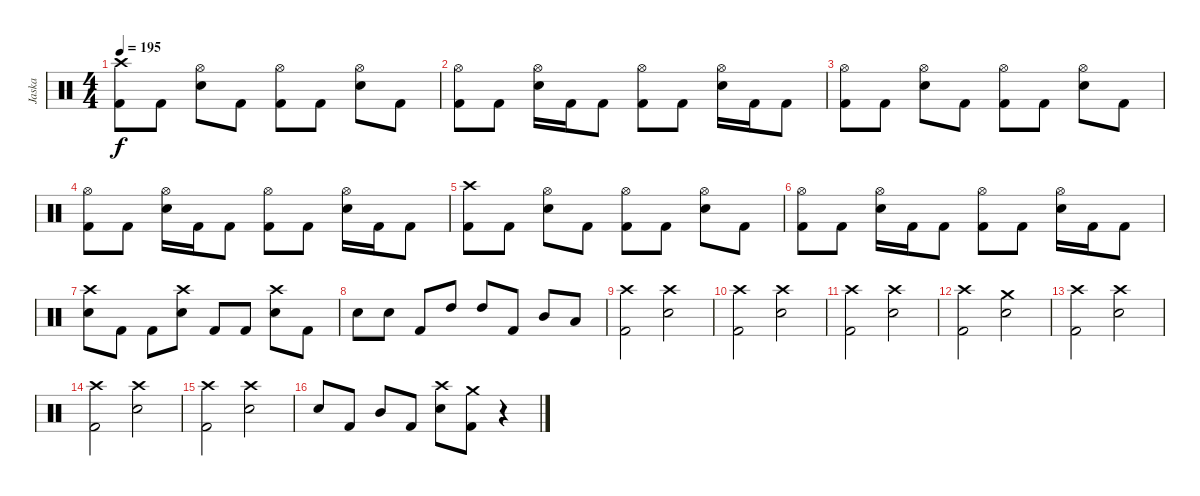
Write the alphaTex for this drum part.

\track ("Jaska" "Jaska") {instrument percussion}
\staff {score}
\articulation defaults
\ts (4 4)
\tempo 195
\clef neutral
\ks c
("Crash high (hit)" "Kick (hit) 2").8{dy f} "Kick (hit) 2".8 ("Hi-Hat (open)" "Electric Snare (hit)").8 "Kick (hit) 2".8 ("Hi-Hat (open)" "Kick (hit) 2").8 "Kick (hit) 2".8 ("Hi-Hat (open)" "Electric Snare (hit)").8 "Kick (hit) 2".8 |
("Hi-Hat (open)" "Kick (hit) 2").8 "Kick (hit) 2".8 ("Hi-Hat (open)" "Electric Snare (hit)").16 "Kick (hit) 2".16 "Kick (hit) 2".8 ("Hi-Hat (open)" "Kick (hit) 2").8 "Kick (hit) 2".8 ("Hi-Hat (open)" "Electric Snare (hit)").16 "Kick (hit) 2".16 "Kick (hit) 2".8 |
("Hi-Hat (open)" "Kick (hit) 2").8 "Kick (hit) 2".8 ("Hi-Hat (open)" "Electric Snare (hit)").8 "Kick (hit) 2".8 ("Hi-Hat (open)" "Kick (hit) 2").8 "Kick (hit) 2".8 ("Hi-Hat (open)" "Electric Snare (hit)").8 "Kick (hit) 2".8 |
("Hi-Hat (open)" "Kick (hit) 2").8 "Kick (hit) 2".8 ("Hi-Hat (open)" "Electric Snare (hit)").16 "Kick (hit) 2".16 "Kick (hit) 2".8 ("Hi-Hat (open)" "Kick (hit) 2").8 "Kick (hit) 2".8 ("Hi-Hat (open)" "Electric Snare (hit)").16 "Kick (hit) 2".16 "Kick (hit) 2".8 |
("Crash high (hit)" "Kick (hit) 2").8 "Kick (hit) 2".8 ("Hi-Hat (open)" "Electric Snare (hit)").8 "Kick (hit) 2".8 ("Hi-Hat (open)" "Kick (hit) 2").8 "Kick (hit) 2".8 ("Hi-Hat (open)" "Electric Snare (hit)").8 "Kick (hit) 2".8 |
("Hi-Hat (open)" "Kick (hit) 2").8 "Kick (hit) 2".8 ("Hi-Hat (open)" "Electric Snare (hit)").16 "Kick (hit) 2".16 "Kick (hit) 2".8 ("Hi-Hat (open)" "Kick (hit) 2").8 "Kick (hit) 2".8 ("Hi-Hat (open)" "Electric Snare (hit)").16 "Kick (hit) 2".16 "Kick (hit) 2".8 |
("Crash high (hit)" "Electric Snare (hit)").8 "Kick (hit) 2".8 "Kick (hit) 2".8 ("Crash high (hit)" "Electric Snare (hit)").8 "Kick (hit) 2".8 "Kick (hit) 2".8 ("Crash high (hit)" "Electric Snare (hit)").8 "Kick (hit) 2".8 |
"Electric Snare (hit)".8 "Electric Snare (hit)".8 "Kick (hit) 2".8 "High Tom (hit)".8 "High Tom (hit)".8 "Kick (hit) 2".8 "Mid Tom (hit)".8 "Low Tom (hit)".8 |
("Crash high (hit)" "Kick (hit) 2").2 ("Crash high (hit)" "Electric Snare (hit)").2 |
("Crash high (hit)" "Kick (hit) 2").2 ("Crash high (hit)" "Electric Snare (hit)").2 |
("Crash high (hit)" "Kick (hit) 2").2 ("Crash high (hit)" "Electric Snare (hit)").2 |
("Crash high (hit)" "Kick (hit) 2").2 ("Crash medium (hit)" "Electric Snare (hit)").2 |
("Crash high (hit)" "Kick (hit) 2").2 ("Crash high (hit)" "Electric Snare (hit)").2 |
("Crash high (hit)" "Kick (hit) 2").2 ("Crash high (hit)" "Electric Snare (hit)").2 |
("Crash high (hit)" "Kick (hit) 2").2 ("Crash high (hit)" "Electric Snare (hit)").2 |
"Electric Snare (hit)".8 "Kick (hit) 2".8 "Mid Tom (hit)".8 "Kick (hit) 2".8 ("Crash high (hit)" "Electric Snare (hit)").8 ("Crash medium (hit)" "Kick (hit) 2").8 r.4
